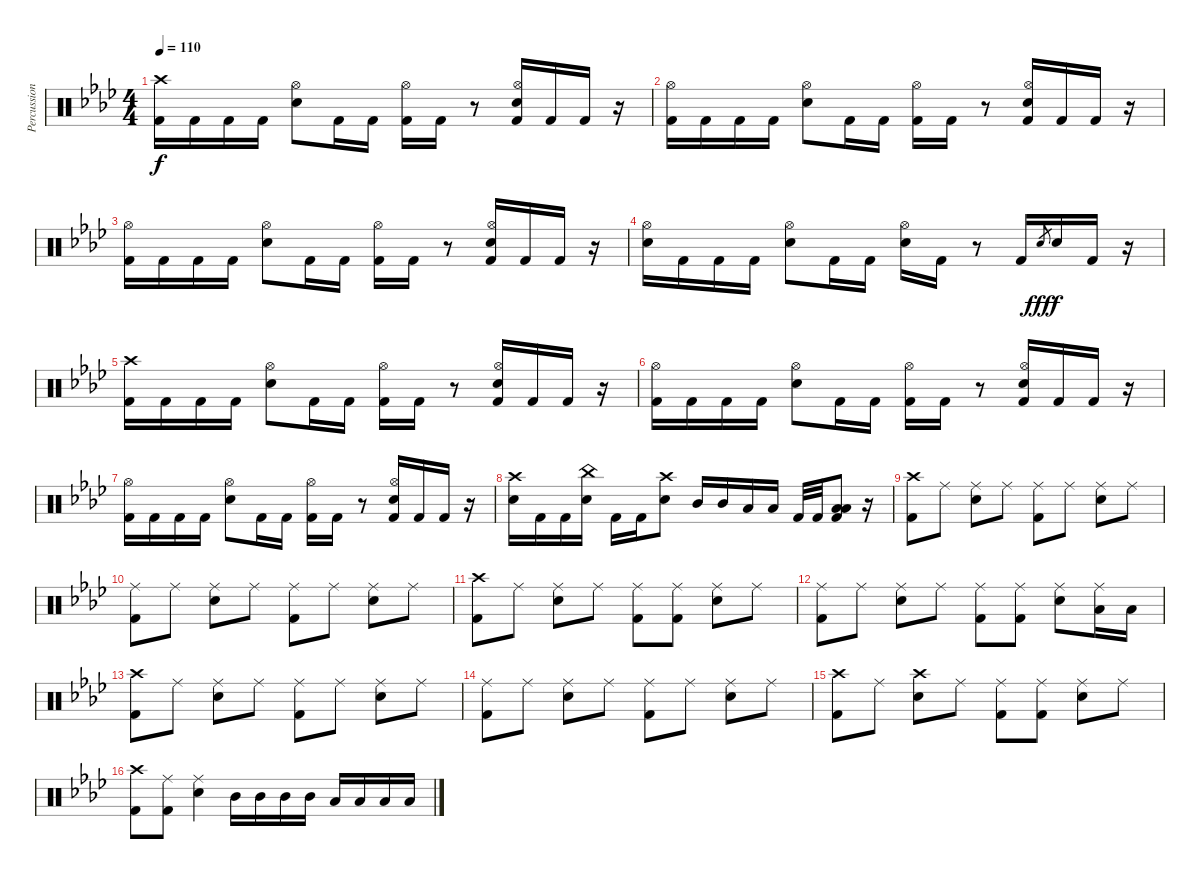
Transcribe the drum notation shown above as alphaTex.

\track ("Percussions" "Percussion") {instrument percussion}
\staff {score}
\articulation defaults
\ts (4 4)
\tempo 110
\clef neutral
\ks fminor
("Crash high (hit)" "Kick (hit) 2").16{dy f} "Kick (hit) 2".16 "Kick (hit) 2".16 "Kick (hit) 2".16 ("Hi-Hat (open)" "Snare (hit) 2").8 "Kick (hit) 2".16 "Kick (hit) 2".16 ("Hi-Hat (open)" "Kick (hit) 2").16 "Kick (hit) 2".16 r.8 ("Hi-Hat (open)" "Snare (hit) 2" "Kick (hit) 2").16 "Kick (hit) 2".16 "Kick (hit) 2".16 r.16 |
("Hi-Hat (open)" "Kick (hit) 2").16 "Kick (hit) 2".16 "Kick (hit) 2".16 "Kick (hit) 2".16 ("Hi-Hat (open)" "Snare (hit) 2").8 "Kick (hit) 2".16 "Kick (hit) 2".16 ("Hi-Hat (open)" "Kick (hit) 2").16 "Kick (hit) 2".16 r.8 ("Hi-Hat (open)" "Snare (hit) 2" "Kick (hit) 2").16 "Kick (hit) 2".16 "Kick (hit) 2".16 r.16 |
("Hi-Hat (open)" "Kick (hit) 2").16 "Kick (hit) 2".16 "Kick (hit) 2".16 "Kick (hit) 2".16 ("Hi-Hat (open)" "Snare (hit) 2").8 "Kick (hit) 2".16 "Kick (hit) 2".16 ("Hi-Hat (open)" "Kick (hit) 2").16 "Kick (hit) 2".16 r.8 ("Hi-Hat (open)" "Snare (hit) 2" "Kick (hit) 2").16 "Kick (hit) 2".16 "Kick (hit) 2".16 r.16 |
("Hi-Hat (open)" "Snare (hit) 2").16 "Kick (hit) 2".16 "Kick (hit) 2".16 "Kick (hit) 2".16 ("Hi-Hat (open)" "Snare (hit) 2").8 "Kick (hit) 2".16 "Kick (hit) 2".16 ("Hi-Hat (open)" "Snare (hit) 2").16 "Kick (hit) 2".16 r.8 "Kick (hit) 2".16 "Snare (hit) 2"{h}.8{gr dy fff} "Snare (hit) 2".16{dy f} "Kick (hit) 2".16 r.16 |
("Crash high (hit)" "Kick (hit) 2").16 "Kick (hit) 2".16 "Kick (hit) 2".16 "Kick (hit) 2".16 ("Hi-Hat (open)" "Snare (hit) 2").8 "Kick (hit) 2".16 "Kick (hit) 2".16 ("Hi-Hat (open)" "Kick (hit) 2").16 "Kick (hit) 2".16 r.8 ("Hi-Hat (open)" "Snare (hit) 2" "Kick (hit) 2").16 "Kick (hit) 2".16 "Kick (hit) 2".16 r.16 |
("Hi-Hat (open)" "Kick (hit) 2").16 "Kick (hit) 2".16 "Kick (hit) 2".16 "Kick (hit) 2".16 ("Hi-Hat (open)" "Snare (hit) 2").8 "Kick (hit) 2".16 "Kick (hit) 2".16 ("Hi-Hat (open)" "Kick (hit) 2").16 "Kick (hit) 2".16 r.8 ("Hi-Hat (open)" "Snare (hit) 2" "Kick (hit) 2").16 "Kick (hit) 2".16 "Kick (hit) 2".16 r.16 |
("Hi-Hat (open)" "Kick (hit) 2").16 "Kick (hit) 2".16 "Kick (hit) 2".16 "Kick (hit) 2".16 ("Hi-Hat (open)" "Snare (hit) 2").8 "Kick (hit) 2".16 "Kick (hit) 2".16 ("Hi-Hat (open)" "Kick (hit) 2").16 "Kick (hit) 2".16 r.8 ("Hi-Hat (open)" "Snare (hit) 2" "Kick (hit) 2").16 "Kick (hit) 2".16 "Kick (hit) 2".16 r.16 |
("Crash high (hit)" "Snare (hit) 2").16 "Kick (hit) 2".16 "Kick (hit) 2".16 ("China (hit)" "Snare (hit) 2").16 "Kick (hit) 2".16 "Kick (hit) 2".16 ("Crash high (hit)" "Snare (hit) 2").8 "Mid Tom (hit)".16 "Mid Tom (hit)".16 "Low Tom (hit)".16 "Low Tom (hit)".16 "Kick (hit) 2".32 "Kick (hit) 2".32 ("Low Floor Tom (hit)" "Low Tom (hit)" "Kick (hit) 2").8 r.16 |
("Crash high (hit)" "Kick (hit) 2").8 "Ride (middle)".8 ("Ride (middle)" "Snare (hit) 2").8 "Ride (middle)".8 ("Ride (middle)" "Kick (hit) 2").8 "Ride (middle)".8 ("Ride (middle)" "Snare (hit) 2").8 "Ride (middle)".8 |
("Ride (middle)" "Kick (hit) 2").8 "Ride (middle)".8 ("Ride (middle)" "Snare (hit) 2").8 "Ride (middle)".8 ("Ride (middle)" "Kick (hit) 2").8 "Ride (middle)".8 ("Ride (middle)" "Snare (hit) 2").8 "Ride (middle)".8 |
("Crash high (hit)" "Kick (hit) 2").8 "Ride (middle)".8 ("Ride (middle)" "Snare (hit) 2").8 "Ride (middle)".8 ("Ride (middle)" "Kick (hit) 2").8 ("Ride (middle)" "Kick (hit) 2").8 ("Ride (middle)" "Snare (hit) 2").8 "Ride (middle)".8 |
("Ride (middle)" "Kick (hit) 2").8 "Ride (middle)".8 ("Ride (middle)" "Snare (hit) 2").8 "Ride (middle)".8 ("Ride (middle)" "Kick (hit) 2").8 ("Ride (middle)" "Kick (hit) 2").8 ("Ride (middle)" "Snare (hit) 2").8 ("Ride (middle)" "Low Tom (hit)").16 "Low Tom (hit)".16 |
("Crash high (hit)" "Kick (hit) 2").8 "Ride (middle)".8 ("Ride (middle)" "Snare (hit) 2").8 "Ride (middle)".8 ("Ride (middle)" "Kick (hit) 2").8 "Ride (middle)".8 ("Ride (middle)" "Snare (hit) 2").8 "Ride (middle)".8 |
("Ride (middle)" "Kick (hit) 2").8 "Ride (middle)".8 ("Ride (middle)" "Snare (hit) 2").8 "Ride (middle)".8 ("Ride (middle)" "Kick (hit) 2").8 "Ride (middle)".8 ("Ride (middle)" "Snare (hit) 2").8 "Ride (middle)".8 |
("Crash high (hit)" "Kick (hit) 2").8 "Ride (middle)".8 ("Crash high (hit)" "Snare (hit) 2").8 "Ride (middle)".8 ("Ride (middle)" "Kick (hit) 2").8 ("Ride (middle)" "Kick (hit) 2").8 ("Ride (middle)" "Snare (hit) 2").8 "Ride (middle)".8 |
("Crash high (hit)" "Kick (hit) 2").8 ("Ride (middle)" "Kick (hit) 2").8 ("Ride (middle)" "Snare (hit) 2").4 "Mid Tom (hit)".16 "Mid Tom (hit)".16 "Mid Tom (hit)".16 "Mid Tom (hit)".16 "Low Tom (hit)".16 "Low Tom (hit)".16 "Low Tom (hit)".16 "Low Tom (hit)".16
